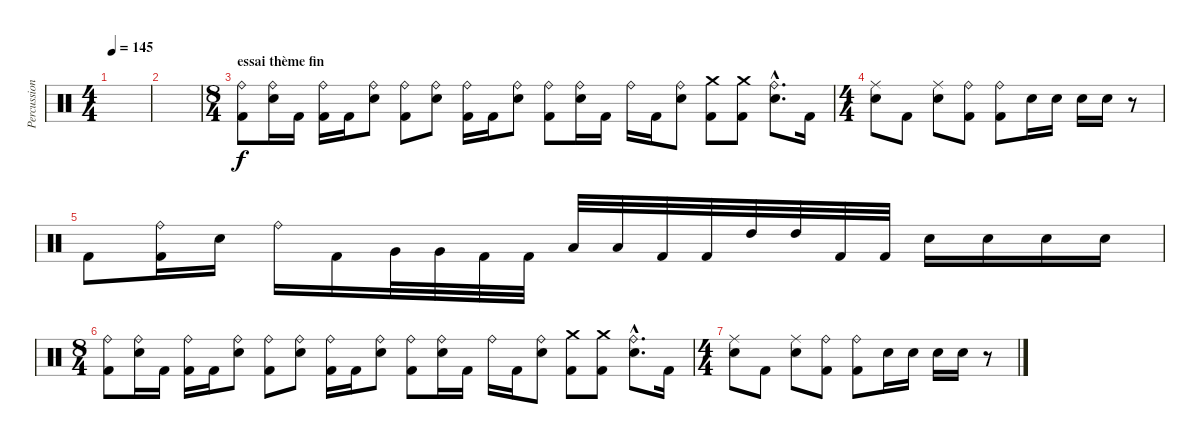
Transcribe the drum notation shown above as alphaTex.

\track ("Percussions" "Percussion") {instrument percussion}
\staff {score}
\articulation defaults
\ts (4 4)
\tempo 145
\clef neutral
\ks c
|
|
\ts (8 4)
\section ("" "essai thème fin")
("Ride (bell)" "Kick (hit) 2").8 ("Ride (bell)" "Electric Snare (hit)").16 "Kick (hit) 2".16 ("Ride (bell)" "Kick (hit) 2").16 "Kick (hit) 2".16 ("Ride (bell)" "Electric Snare (hit)").8 ("Ride (bell)" "Kick (hit) 2").8 ("Ride (bell)" "Electric Snare (hit)").8 ("Ride (bell)" "Kick (hit) 2").16 "Kick (hit) 2".16 ("Ride (bell)" "Electric Snare (hit)").8 ("Ride (bell)" "Kick (hit) 2").8 ("Ride (bell)" "Electric Snare (hit)").16 "Kick (hit) 2".16 "Ride (bell)".16 "Kick (hit) 2".16 ("Ride (bell)" "Electric Snare (hit)").8 ("Crash medium (hit)" "Kick (hit) 2").8 ("Crash medium (hit)" "Kick (hit) 2").8 ("Ride (bell)"{hac} "Electric Snare (hit)"{hac}).8{d} "Kick (hit) 2".16 |
\ts (4 4)
("Ride (middle)" "Electric Snare (hit)").8 "Kick (hit) 2".8 ("Ride (middle)" "Electric Snare (hit)").8 ("Ride (bell)" "Kick (hit) 2").8 ("Ride (bell)" "Kick (hit) 2").8 "Electric Snare (hit)".16 "Electric Snare (hit)".16 "Electric Snare (hit)".16 "Electric Snare (hit)".16 r.8 |
"Kick (hit) 2".8 ("Ride (bell)" "Kick (hit) 2").16 "Electric Snare (hit)".16 "Ride (bell)".16 "Kick (hit) 2".16 "Very Low Tom (hit)".32 "Very Low Tom (hit)".32 "Kick (hit) 2".32 "Kick (hit) 2".32 "Low Tom (hit)".32 "Low Tom (hit)".32 "Kick (hit) 2".32 "Kick (hit) 2".32 "High Tom (hit)".32 "High Tom (hit)".32 "Kick (hit) 2".32 "Kick (hit) 2".32 "Electric Snare (hit)".16 "Electric Snare (hit)".16 "Electric Snare (hit)".16 "Electric Snare (hit)".16 |
\ts (8 4)
("Ride (bell)" "Kick (hit) 2").8 ("Ride (bell)" "Electric Snare (hit)").16 "Kick (hit) 2".16 ("Ride (bell)" "Kick (hit) 2").16 "Kick (hit) 2".16 ("Ride (bell)" "Electric Snare (hit)").8 ("Ride (bell)" "Kick (hit) 2").8 ("Ride (bell)" "Electric Snare (hit)").8 ("Ride (bell)" "Kick (hit) 2").16 "Kick (hit) 2".16 ("Ride (bell)" "Electric Snare (hit)").8 ("Ride (bell)" "Kick (hit) 2").8 ("Ride (bell)" "Electric Snare (hit)").16 "Kick (hit) 2".16 "Ride (bell)".16 "Kick (hit) 2".16 ("Ride (bell)" "Electric Snare (hit)").8 ("Crash medium (hit)" "Kick (hit) 2").8 ("Crash medium (hit)" "Kick (hit) 2").8 ("Ride (bell)"{hac} "Electric Snare (hit)"{hac}).8{d} "Kick (hit) 2".16 |
\ts (4 4)
("Ride (middle)" "Electric Snare (hit)").8 "Kick (hit) 2".8 ("Ride (middle)" "Electric Snare (hit)").8 ("Ride (bell)" "Kick (hit) 2").8 ("Ride (bell)" "Kick (hit) 2").8 "Electric Snare (hit)".16 "Electric Snare (hit)".16 "Electric Snare (hit)".16 "Electric Snare (hit)".16 r.8
